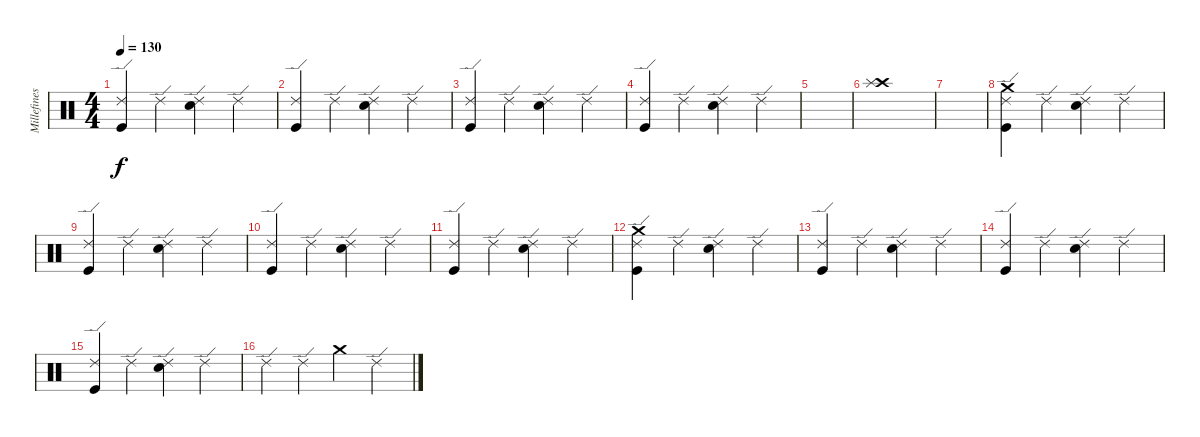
\track ("Millefinestre" "Millefines") {instrument percussion}
\staff {score}
\articulation defaults
\ts (4 4)
\tempo 130
\clef neutral
\ks c
("Ride (edge) 2" "Kick (hit)").4{dy f} "Ride (edge) 2".4 ("Ride (edge) 2" "Snare (hit) 2").4 "Ride (edge) 2".4 |
("Ride (edge) 2" "Kick (hit)").4 "Ride (edge) 2".4 ("Ride (edge) 2" "Snare (hit) 2").4 "Ride (edge) 2".4 |
("Ride (edge) 2" "Kick (hit)").4 "Ride (edge) 2".4 ("Ride (edge) 2" "Snare (hit) 2").4 "Ride (edge) 2".4 |
("Ride (edge) 2" "Kick (hit)").4 "Ride (edge) 2".4 ("Ride (edge) 2" "Snare (hit) 2").4 "Ride (edge) 2".4 |
|
("Crash high (hit)" "Splash (hit)").1 |
|
("Crash medium (hit)" "Ride (edge) 2" "Kick (hit)").4 "Ride (edge) 2".4 ("Ride (edge) 2" "Snare (hit) 2").4 "Ride (edge) 2".4 |
("Ride (edge) 2" "Kick (hit)").4 "Ride (edge) 2".4 ("Ride (edge) 2" "Snare (hit) 2").4 "Ride (edge) 2".4 |
("Ride (edge) 2" "Kick (hit)").4 "Ride (edge) 2".4 ("Ride (edge) 2" "Snare (hit) 2").4 "Ride (edge) 2".4 |
("Ride (edge) 2" "Kick (hit)").4 "Ride (edge) 2".4 ("Ride (edge) 2" "Snare (hit) 2").4 "Ride (edge) 2".4 |
("Crash medium (hit)" "Ride (edge) 2" "Kick (hit)").4 "Ride (edge) 2".4 ("Ride (edge) 2" "Snare (hit) 2").4 "Ride (edge) 2".4 |
("Ride (edge) 2" "Kick (hit)").4 "Ride (edge) 2".4 ("Ride (edge) 2" "Snare (hit) 2").4 "Ride (edge) 2".4 |
("Ride (edge) 2" "Kick (hit)").4 "Ride (edge) 2".4 ("Ride (edge) 2" "Snare (hit) 2").4 "Ride (edge) 2".4 |
("Ride (edge) 2" "Kick (hit)").4 "Ride (edge) 2".4 ("Ride (edge) 2" "Snare (hit) 2").4 "Ride (edge) 2".4 |
"Ride (edge) 2".4 "Ride (edge) 2".4 "Crash medium (hit)".4 "Ride (edge) 2".4
